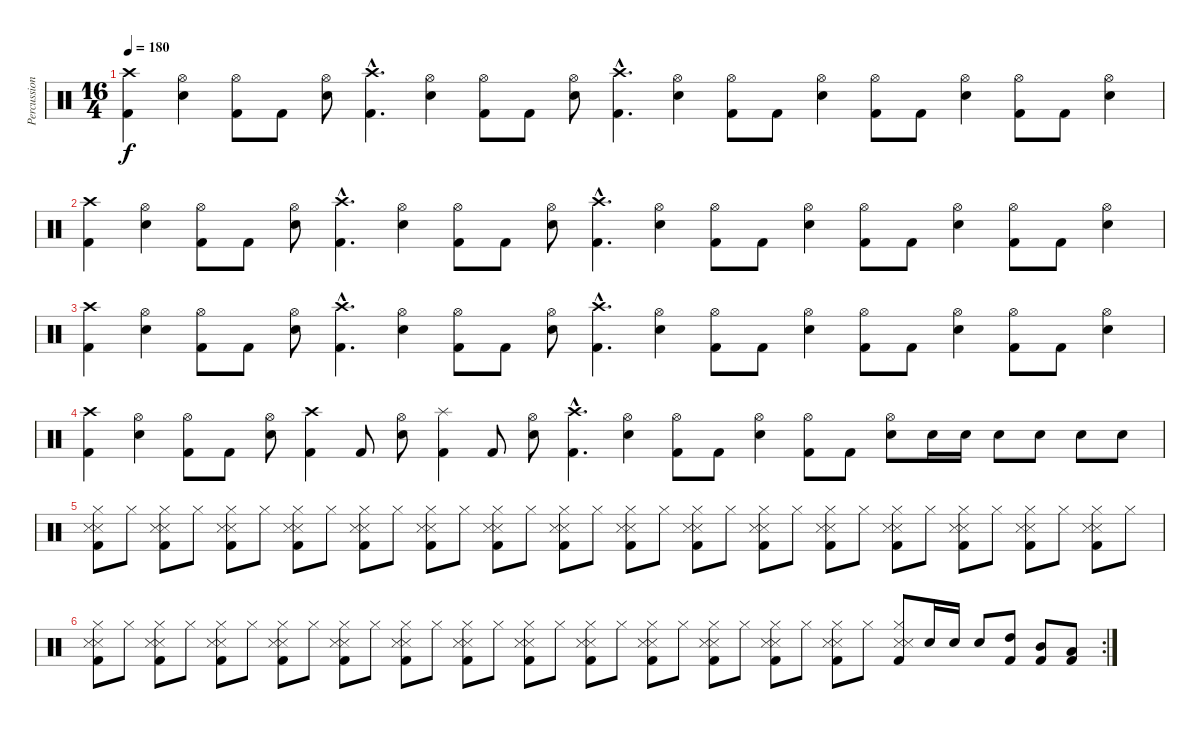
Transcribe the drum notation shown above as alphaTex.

\track ("Percussions" "Percussion") {instrument percussion}
\staff {score}
\articulation defaults
\ts (16 4)
\tempo 180
\clef neutral
\ks c
("Crash high (hit)" "Kick (hit) 2").4{dy f} ("Hi-Hat (open)" "Electric Snare (hit)").4 ("Hi-Hat (open)" "Kick (hit) 2").8 "Kick (hit) 2".8 ("Hi-Hat (open)" "Electric Snare (hit)").8 ("Crash high (hit)"{hac} "Kick (hit) 2"{hac}).4{d} ("Hi-Hat (open)" "Electric Snare (hit)").4 ("Hi-Hat (open)" "Kick (hit) 2").8 "Kick (hit) 2".8 ("Hi-Hat (open)" "Electric Snare (hit)").8 ("Crash high (hit)"{hac} "Kick (hit) 2"{hac}).4{d} ("Hi-Hat (open)" "Electric Snare (hit)").4 ("Hi-Hat (open)" "Kick (hit) 2").8 "Kick (hit) 2".8 ("Hi-Hat (open)" "Electric Snare (hit)").4 ("Hi-Hat (open)" "Kick (hit) 2").8 "Kick (hit) 2".8 ("Hi-Hat (open)" "Electric Snare (hit)").4 ("Hi-Hat (open)" "Kick (hit) 2").8 "Kick (hit) 2".8 ("Hi-Hat (open)" "Electric Snare (hit)").4 |
("Crash high (hit)" "Kick (hit) 2").4 ("Hi-Hat (open)" "Electric Snare (hit)").4 ("Hi-Hat (open)" "Kick (hit) 2").8 "Kick (hit) 2".8 ("Hi-Hat (open)" "Electric Snare (hit)").8 ("Crash high (hit)"{hac} "Kick (hit) 2"{hac}).4{d} ("Hi-Hat (open)" "Electric Snare (hit)").4 ("Hi-Hat (open)" "Kick (hit) 2").8 "Kick (hit) 2".8 ("Hi-Hat (open)" "Electric Snare (hit)").8 ("Crash high (hit)"{hac} "Kick (hit) 2"{hac}).4{d} ("Hi-Hat (open)" "Electric Snare (hit)").4 ("Hi-Hat (open)" "Kick (hit) 2").8 "Kick (hit) 2".8 ("Hi-Hat (open)" "Electric Snare (hit)").4 ("Hi-Hat (open)" "Kick (hit) 2").8 "Kick (hit) 2".8 ("Hi-Hat (open)" "Electric Snare (hit)").4 ("Hi-Hat (open)" "Kick (hit) 2").8 "Kick (hit) 2".8 ("Hi-Hat (open)" "Electric Snare (hit)").4 |
("Crash high (hit)" "Kick (hit) 2").4 ("Hi-Hat (open)" "Electric Snare (hit)").4 ("Hi-Hat (open)" "Kick (hit) 2").8 "Kick (hit) 2".8 ("Hi-Hat (open)" "Electric Snare (hit)").8 ("Crash high (hit)"{hac} "Kick (hit) 2"{hac}).4{d} ("Hi-Hat (open)" "Electric Snare (hit)").4 ("Hi-Hat (open)" "Kick (hit) 2").8 "Kick (hit) 2".8 ("Hi-Hat (open)" "Electric Snare (hit)").8 ("Crash high (hit)"{hac} "Kick (hit) 2"{hac}).4{d} ("Hi-Hat (open)" "Electric Snare (hit)").4 ("Hi-Hat (open)" "Kick (hit) 2").8 "Kick (hit) 2".8 ("Hi-Hat (open)" "Electric Snare (hit)").4 ("Hi-Hat (open)" "Kick (hit) 2").8 "Kick (hit) 2".8 ("Hi-Hat (open)" "Electric Snare (hit)").4 ("Hi-Hat (open)" "Kick (hit) 2").8 "Kick (hit) 2".8 ("Hi-Hat (open)" "Electric Snare (hit)").4 |
("Crash high (hit)" "Kick (hit) 2").4 ("Hi-Hat (open)" "Electric Snare (hit)").4 ("Hi-Hat (open)" "Kick (hit) 2").8 "Kick (hit) 2".8 ("Hi-Hat (open)" "Electric Snare (hit)").8 ("Crash high (hit)" "Kick (hit) 2").4 "Kick (hit) 2".8 ("Hi-Hat (open)" "Electric Snare (hit)").8 ("Splash (hit)" "Kick (hit) 2").4 "Kick (hit) 2".8 ("Hi-Hat (open)" "Electric Snare (hit)").8 ("Crash high (hit)"{hac} "Kick (hit) 2"{hac}).4{d} ("Hi-Hat (open)" "Electric Snare (hit)").4 ("Hi-Hat (open)" "Kick (hit) 2").8 "Kick (hit) 2".8 ("Hi-Hat (open)" "Electric Snare (hit)").4 ("Hi-Hat (open)" "Kick (hit) 2").8 "Kick (hit) 2".8 ("Hi-Hat (open)" "Electric Snare (hit)").8 "Electric Snare (hit)".16 "Electric Snare (hit)".16 "Electric Snare (hit)".8 "Electric Snare (hit)".8 "Electric Snare (hit)".8 "Electric Snare (hit)".8 |
("Hi-Hat (closed)" "Snare (side stick) 3" "Snare (side stick) 3" "Kick (hit) 2").8 "Hi-Hat (closed)".8 ("Hi-Hat (closed)" "Snare (side stick) 3" "Snare (side stick) 3" "Kick (hit) 2").8 "Hi-Hat (closed)".8 ("Hi-Hat (closed)" "Snare (side stick) 3" "Snare (side stick) 3" "Kick (hit) 2").8 "Hi-Hat (closed)".8 ("Hi-Hat (closed)" "Snare (side stick) 3" "Snare (side stick) 3" "Kick (hit) 2").8 "Hi-Hat (closed)".8 ("Hi-Hat (closed)" "Snare (side stick) 3" "Snare (side stick) 3" "Kick (hit) 2").8 "Hi-Hat (closed)".8 ("Hi-Hat (closed)" "Snare (side stick) 3" "Snare (side stick) 3" "Kick (hit) 2").8 "Hi-Hat (closed)".8 ("Hi-Hat (closed)" "Snare (side stick) 3" "Snare (side stick) 3" "Kick (hit) 2").8 "Hi-Hat (closed)".8 ("Hi-Hat (closed)" "Snare (side stick) 3" "Snare (side stick) 3" "Kick (hit) 2").8 "Hi-Hat (closed)".8 ("Hi-Hat (closed)" "Snare (side stick) 3" "Snare (side stick) 3" "Kick (hit) 2").8 "Hi-Hat (closed)".8 ("Hi-Hat (closed)" "Snare (side stick) 3" "Snare (side stick) 3" "Kick (hit) 2").8 "Hi-Hat (closed)".8 ("Hi-Hat (closed)" "Snare (side stick) 3" "Snare (side stick) 3" "Kick (hit) 2").8 "Hi-Hat (closed)".8 ("Hi-Hat (closed)" "Snare (side stick) 3" "Snare (side stick) 3" "Kick (hit) 2").8 "Hi-Hat (closed)".8 ("Hi-Hat (closed)" "Snare (side stick) 3" "Snare (side stick) 3" "Kick (hit) 2").8 "Hi-Hat (closed)".8 ("Hi-Hat (closed)" "Snare (side stick) 3" "Snare (side stick) 3" "Kick (hit) 2").8 "Hi-Hat (closed)".8 ("Hi-Hat (closed)" "Snare (side stick) 3" "Snare (side stick) 3" "Kick (hit) 2").8 "Hi-Hat (closed)".8 ("Hi-Hat (closed)" "Snare (side stick) 3" "Snare (side stick) 3" "Kick (hit) 2").8 "Hi-Hat (closed)".8 |
\rc 2
("Hi-Hat (closed)" "Snare (side stick) 3" "Snare (side stick) 3" "Kick (hit) 2").8 "Hi-Hat (closed)".8 ("Hi-Hat (closed)" "Snare (side stick) 3" "Snare (side stick) 3" "Kick (hit) 2").8 "Hi-Hat (closed)".8 ("Hi-Hat (closed)" "Snare (side stick) 3" "Snare (side stick) 3" "Kick (hit) 2").8 "Hi-Hat (closed)".8 ("Hi-Hat (closed)" "Snare (side stick) 3" "Snare (side stick) 3" "Kick (hit) 2").8 "Hi-Hat (closed)".8 ("Hi-Hat (closed)" "Snare (side stick) 3" "Snare (side stick) 3" "Kick (hit) 2").8 "Hi-Hat (closed)".8 ("Hi-Hat (closed)" "Snare (side stick) 3" "Snare (side stick) 3" "Kick (hit) 2").8 "Hi-Hat (closed)".8 ("Hi-Hat (closed)" "Snare (side stick) 3" "Snare (side stick) 3" "Kick (hit) 2").8 "Hi-Hat (closed)".8 ("Hi-Hat (closed)" "Snare (side stick) 3" "Snare (side stick) 3" "Kick (hit) 2").8 "Hi-Hat (closed)".8 ("Hi-Hat (closed)" "Snare (side stick) 3" "Snare (side stick) 3" "Kick (hit) 2").8 "Hi-Hat (closed)".8 ("Hi-Hat (closed)" "Snare (side stick) 3" "Snare (side stick) 3" "Kick (hit) 2").8 "Hi-Hat (closed)".8 ("Hi-Hat (closed)" "Snare (side stick) 3" "Snare (side stick) 3" "Kick (hit) 2").8 "Hi-Hat (closed)".8 ("Hi-Hat (closed)" "Snare (side stick) 3" "Snare (side stick) 3" "Kick (hit) 2").8 "Hi-Hat (closed)".8 ("Hi-Hat (closed)" "Snare (side stick) 3" "Snare (side stick) 3" "Kick (hit) 2").8 "Hi-Hat (closed)".8 ("Hi-Hat (closed)" "Snare (side stick) 3" "Snare (side stick) 3" "Kick (hit) 2").8 "Electric Snare (hit)".16 "Electric Snare (hit)".16 "Electric Snare (hit)".8 ("Kick (hit) 2" "High Tom (hit)").8 ("Kick (hit) 2" "Mid Tom (hit)").8 ("Kick (hit) 2" "Low Tom (hit)").8
